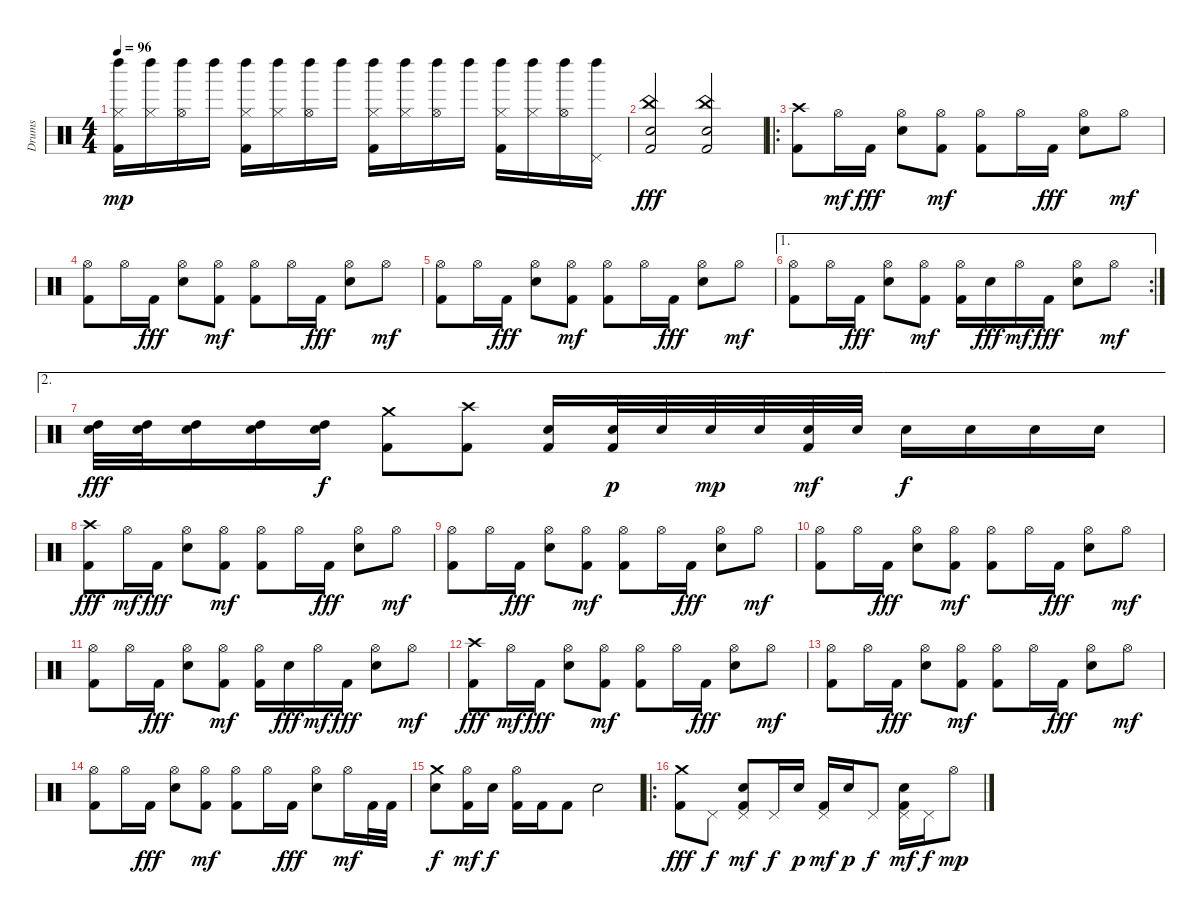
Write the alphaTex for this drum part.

\track ("Drums" "Drums") {instrument percussion}
\staff {score}
\articulation defaults
\ts (4 4)
\tempo 96
\clef neutral
\ks c
("Kick (hit) 2" "Hi-Hat (closed)" "Left Maraca (hit)").16{dy mp} ("Hi-Hat (closed)" "Left Maraca (hit)").16 ("Hi-Hat (open)" "Left Maraca (hit)").16 "Left Maraca (hit)".16 ("Kick (hit) 2" "Hi-Hat (closed)" "Left Maraca (hit)").16 ("Hi-Hat (closed)" "Left Maraca (hit)").16 ("Hi-Hat (open)" "Left Maraca (hit)").16 "Left Maraca (hit)".16 ("Kick (hit) 2" "Hi-Hat (closed)" "Left Maraca (hit)").16 ("Hi-Hat (closed)" "Left Maraca (hit)").16 ("Hi-Hat (open)" "Left Maraca (hit)").16 "Left Maraca (hit)".16 ("Kick (hit) 2" "Hi-Hat (closed)" "Left Maraca (hit)").16 ("Hi-Hat (closed)" "Left Maraca (hit)").16 ("Hi-Hat (open)" "Left Maraca (hit)").16 ("Pedal Hi-Hat (hit)" "Left Maraca (hit)").16 |
("Kick (hit) 2" "China (hit)" "Electric Snare (hit)").2{dy fff} ("Kick (hit) 2" "China (hit)" "Electric Snare (hit)").2 |
\ro
("Kick (hit) 2" "Crash high (hit)").8 "Hi-Hat (open)".16{dy mf} "Kick (hit) 2".16{dy fff} ("Hi-Hat (open)" "Snare (hit) 2").8 ("Kick (hit) 2" "Hi-Hat (open)").8{dy mf} ("Kick (hit) 2" "Hi-Hat (open)").8 "Hi-Hat (open)".16 "Kick (hit) 2".16{dy fff} ("Hi-Hat (open)" "Snare (hit) 2").8 "Hi-Hat (open)".8{dy mf} |
("Kick (hit) 2" "Hi-Hat (open)").8 "Hi-Hat (open)".16 "Kick (hit) 2".16{dy fff} ("Hi-Hat (open)" "Snare (hit) 2").8 ("Kick (hit) 2" "Hi-Hat (open)").8{dy mf} ("Kick (hit) 2" "Hi-Hat (open)").8 "Hi-Hat (open)".16 "Kick (hit) 2".16{dy fff} ("Hi-Hat (open)" "Snare (hit) 2").8 "Hi-Hat (open)".8{dy mf} |
("Kick (hit) 2" "Hi-Hat (open)").8 "Hi-Hat (open)".16 "Kick (hit) 2".16{dy fff} ("Hi-Hat (open)" "Snare (hit) 2").8 ("Kick (hit) 2" "Hi-Hat (open)").8{dy mf} ("Kick (hit) 2" "Hi-Hat (open)").8 "Hi-Hat (open)".16 "Kick (hit) 2".16{dy fff} ("Hi-Hat (open)" "Snare (hit) 2").8 "Hi-Hat (open)".8{dy mf} |
\ae 1
\rc 2
("Kick (hit) 2" "Hi-Hat (open)").8 "Hi-Hat (open)".16 "Kick (hit) 2".16{dy fff} ("Hi-Hat (open)" "Snare (hit) 2").8 ("Kick (hit) 2" "Hi-Hat (open)").8{dy mf} ("Kick (hit) 2" "Hi-Hat (open)").16 "Snare (hit) 2".16{dy fff} "Hi-Hat (open)".16{dy mf} "Kick (hit) 2".16{dy fff} ("Hi-Hat (open)" "Snare (hit) 2").8 "Hi-Hat (open)".8{dy mf} |
\ae 2
("High Tom (hit)" "Snare (hit) 2").32{dy fff} ("High Tom (hit)" "Snare (hit) 2").32 ("High Tom (hit)" "Snare (hit) 2").16 ("High Tom (hit)" "Snare (hit) 2").16 ("High Tom (hit)" "Snare (hit) 2").16{dy f} ("Kick (hit) 2" "Crash medium (hit)").8 ("Kick (hit) 2" "Crash high (hit)").8 ("Kick (hit) 2" "Snare (hit) 2").16 ("Kick (hit) 2" "Snare (hit) 2").32{dy p} "Snare (hit) 2".32 "Snare (hit) 2".32{dy mp} "Snare (hit) 2".32 ("Kick (hit) 2" "Snare (hit) 2").32{dy mf} "Snare (hit) 2".32 "Snare (hit) 2".16{dy f} "Snare (hit) 2".16 "Snare (hit) 2".16 "Snare (hit) 2".16 |
("Kick (hit) 2" "Crash high (hit)").8{dy fff} "Hi-Hat (open)".16{dy mf} "Kick (hit) 2".16{dy fff} ("Hi-Hat (open)" "Snare (hit) 2").8 ("Kick (hit) 2" "Hi-Hat (open)").8{dy mf} ("Kick (hit) 2" "Hi-Hat (open)").8 "Hi-Hat (open)".16 "Kick (hit) 2".16{dy fff} ("Hi-Hat (open)" "Snare (hit) 2").8 "Hi-Hat (open)".8{dy mf} |
("Kick (hit) 2" "Hi-Hat (open)").8 "Hi-Hat (open)".16 "Kick (hit) 2".16{dy fff} ("Hi-Hat (open)" "Snare (hit) 2").8 ("Kick (hit) 2" "Hi-Hat (open)").8{dy mf} ("Kick (hit) 2" "Hi-Hat (open)").8 "Hi-Hat (open)".16 "Kick (hit) 2".16{dy fff} ("Hi-Hat (open)" "Snare (hit) 2").8 "Hi-Hat (open)".8{dy mf} |
("Kick (hit) 2" "Hi-Hat (open)").8 "Hi-Hat (open)".16 "Kick (hit) 2".16{dy fff} ("Hi-Hat (open)" "Snare (hit) 2").8 ("Kick (hit) 2" "Hi-Hat (open)").8{dy mf} ("Kick (hit) 2" "Hi-Hat (open)").8 "Hi-Hat (open)".16 "Kick (hit) 2".16{dy fff} ("Hi-Hat (open)" "Snare (hit) 2").8 "Hi-Hat (open)".8{dy mf} |
("Kick (hit) 2" "Hi-Hat (open)").8 "Hi-Hat (open)".16 "Kick (hit) 2".16{dy fff} ("Hi-Hat (open)" "Snare (hit) 2").8 ("Kick (hit) 2" "Hi-Hat (open)").8{dy mf} ("Kick (hit) 2" "Hi-Hat (open)").16 "Snare (hit) 2".16{dy fff} "Hi-Hat (open)".16{dy mf} "Kick (hit) 2".16{dy fff} ("Hi-Hat (open)" "Snare (hit) 2").8 "Hi-Hat (open)".8{dy mf} |
("Kick (hit) 2" "Crash high (hit)").8{dy fff} "Hi-Hat (open)".16{dy mf} "Kick (hit) 2".16{dy fff} ("Hi-Hat (open)" "Snare (hit) 2").8 ("Kick (hit) 2" "Hi-Hat (open)").8{dy mf} ("Kick (hit) 2" "Hi-Hat (open)").8 "Hi-Hat (open)".16 "Kick (hit) 2".16{dy fff} ("Hi-Hat (open)" "Snare (hit) 2").8 "Hi-Hat (open)".8{dy mf} |
("Kick (hit) 2" "Hi-Hat (open)").8 "Hi-Hat (open)".16 "Kick (hit) 2".16{dy fff} ("Hi-Hat (open)" "Snare (hit) 2").8 ("Kick (hit) 2" "Hi-Hat (open)").8{dy mf} ("Kick (hit) 2" "Hi-Hat (open)").8 "Hi-Hat (open)".16 "Kick (hit) 2".16{dy fff} ("Hi-Hat (open)" "Snare (hit) 2").8 "Hi-Hat (open)".8{dy mf} |
("Kick (hit) 2" "Hi-Hat (open)").8 "Hi-Hat (open)".16 "Kick (hit) 2".16{dy fff} ("Hi-Hat (open)" "Snare (hit) 2").8 ("Kick (hit) 2" "Hi-Hat (open)").8{dy mf} ("Kick (hit) 2" "Hi-Hat (open)").8 "Hi-Hat (open)".16 "Kick (hit) 2".16{dy fff} ("Hi-Hat (open)" "Snare (hit) 2").8 "Hi-Hat (open)".16{dy mf} "Kick (hit) 2".32 "Kick (hit) 2".32 |
("Crash medium (hit)" "Snare (hit) 2").8{dy f} ("Kick (hit) 2" "Hi-Hat (open)").16{dy mf} "Snare (hit) 2".16{dy f} ("Kick (hit) 2" "Hi-Hat (open)").16 "Kick (hit) 2".16 "Kick (hit) 2".8 "Snare (hit) 2".2 |
\ro
("Kick (hit) 2" "Crash medium (hit)").8{dy fff} "Pedal Hi-Hat (hit)".8{dy f} ("Kick (hit) 2" "Pedal Hi-Hat (hit)" "Electric Snare (hit)").8{dy mf} "Pedal Hi-Hat (hit)".16{dy f} "Electric Snare (hit)".16{dy p} ("Kick (hit) 2" "Pedal Hi-Hat (hit)").16{dy mf} "Electric Snare (hit)".16{dy p} "Pedal Hi-Hat (hit)".8{dy f} ("Kick (hit) 2" "Pedal Hi-Hat (hit)" "Electric Snare (hit)").16{dy mf} "Pedal Hi-Hat (hit)".16{dy f} "Hi-Hat (open)".8{dy mp}
